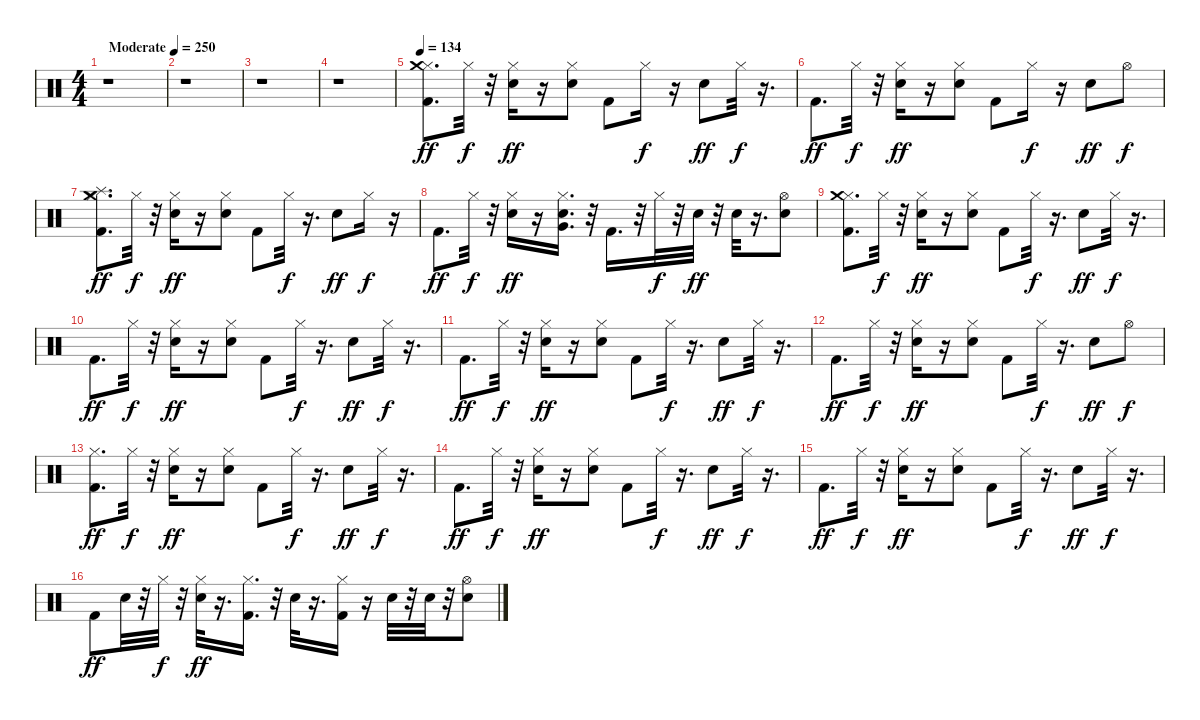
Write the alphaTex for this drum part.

\track "" {instrument percussion}
\staff {score}
\articulation defaults
\ts (4 4)
\tempo (250 "Moderate")
\clef neutral
\ks c
r.1{dy ff} |
r.1 |
r.1 |
r.1 |
\tempo 134
("Hi-Hat (closed)" "Crash medium (hit)" "Kick (hit) 2").8{d} "Hi-Hat (closed)".32{dy f} r.32 ("Snare (hit) 2" "Hi-Hat (closed)").16{dy ff} r.16 ("Snare (hit) 2" "Hi-Hat (closed)").8 "Kick (hit) 2".8 "Hi-Hat (closed)".16{dy f} r.16 "Snare (hit) 2".8{dy ff} "Hi-Hat (closed)".32{dy f} r.16{d} |
"Kick (hit) 2".8{d dy ff} "Hi-Hat (closed)".32{dy f} r.32 ("Snare (hit) 2" "Hi-Hat (closed)").16{dy ff} r.16 ("Hi-Hat (closed)" "Snare (hit) 2").8 "Kick (hit) 2".8 "Hi-Hat (closed)".16{dy f} r.16 "Snare (hit) 2".8{dy ff} "Hi-Hat (open)".8{dy f} |
("Hi-Hat (closed)" "Splash (hit)" "Crash medium (hit)" "Kick (hit) 2").8{d dy ff} "Hi-Hat (closed)".32{dy f} r.32 ("Snare (hit) 2" "Hi-Hat (closed)").16{dy ff} r.16 ("Hi-Hat (closed)" "Snare (hit) 2").8 "Kick (hit) 2".8 "Hi-Hat (closed)".32{dy f} r.16{d} "Snare (hit) 2".8{dy ff} "Hi-Hat (closed)".16{dy f} r.16 |
"Kick (hit) 2".8{d dy ff} "Hi-Hat (closed)".32{dy f} r.32 ("Hi-Hat (closed)" "Snare (hit) 2").16{dy ff} r.16 ("Hi-Hat (closed)" "Very Low Tom (hit)" "Snare (hit) 2").16{d} r.32 "Kick (hit) 2".16{d} r.32 "Hi-Hat (closed)".32{dy f} r.32 "Snare (hit) 2".32{dy ff} r.32 "Snare (hit) 2".32 r.16{d} ("Hi-Hat (open)" "Snare (hit) 2").8 |
("Hi-Hat (closed)" "Kick (hit) 2" "Crash medium (hit)").8{d} "Hi-Hat (closed)".32{dy f} r.32 ("Snare (hit) 2" "Hi-Hat (closed)").16{dy ff} r.16 ("Snare (hit) 2" "Hi-Hat (closed)").8 "Kick (hit) 2".8 "Hi-Hat (closed)".32{dy f} r.16{d} "Snare (hit) 2".8{dy ff} "Hi-Hat (closed)".32{dy f} r.16{d} |
"Kick (hit) 2".8{d dy ff} "Hi-Hat (closed)".32{dy f} r.32 ("Hi-Hat (closed)" "Snare (hit) 2").16{dy ff} r.16 ("Snare (hit) 2" "Hi-Hat (closed)").8 "Kick (hit) 2".8 "Hi-Hat (closed)".32{dy f} r.16{d} "Snare (hit) 2".8{dy ff} "Hi-Hat (closed)".32{dy f} r.16{d} |
"Kick (hit) 2".8{d dy ff} "Hi-Hat (closed)".32{dy f} r.32 ("Snare (hit) 2" "Hi-Hat (closed)").16{dy ff} r.16 ("Snare (hit) 2" "Hi-Hat (closed)").8 "Kick (hit) 2".8 "Hi-Hat (closed)".32{dy f} r.16{d} "Snare (hit) 2".8{dy ff} "Hi-Hat (closed)".32{dy f} r.16{d} |
"Kick (hit) 2".8{d dy ff} "Hi-Hat (closed)".32{dy f} r.32 ("Hi-Hat (closed)" "Snare (hit) 2").16{dy ff} r.16 ("Snare (hit) 2" "Hi-Hat (closed)").8 "Kick (hit) 2".8 "Hi-Hat (closed)".32{dy f} r.16{d} "Snare (hit) 2".8{dy ff} "Hi-Hat (open)".8{dy f} |
("Kick (hit) 2" "Hi-Hat (closed)").8{d dy ff} "Hi-Hat (closed)".32{dy f} r.32 ("Hi-Hat (closed)" "Snare (hit) 2").16{dy ff} r.16 ("Snare (hit) 2" "Hi-Hat (closed)").8 "Kick (hit) 2".8 "Hi-Hat (closed)".32{dy f} r.16{d} "Snare (hit) 2".8{dy ff} "Hi-Hat (closed)".32{dy f} r.16{d} |
"Kick (hit) 2".8{d dy ff} "Hi-Hat (closed)".32{dy f} r.32 ("Snare (hit) 2" "Hi-Hat (closed)").16{dy ff} r.16 ("Snare (hit) 2" "Hi-Hat (closed)").8 "Kick (hit) 2".8 "Hi-Hat (closed)".32{dy f} r.16{d} "Snare (hit) 2".8{dy ff} "Hi-Hat (closed)".32{dy f} r.16{d} |
"Kick (hit) 2".8{d dy ff} "Hi-Hat (closed)".32{dy f} r.32 ("Hi-Hat (closed)" "Snare (hit) 2").16{dy ff} r.16 ("Hi-Hat (closed)" "Snare (hit) 2").8 "Kick (hit) 2".8 "Hi-Hat (closed)".32{dy f} r.16{d} "Snare (hit) 2".8{dy ff} "Hi-Hat (closed)".32{dy f} r.16{d} |
"Kick (hit) 2".8{dy ff} "Snare (hit) 2".32 r.32 "Hi-Hat (closed)".32{dy f} r.32 ("Snare (hit) 2" "Hi-Hat (closed)").32{dy ff} r.16{d} ("Hi-Hat (closed)" "Kick (hit) 2").16{d} r.32 "Snare (hit) 2".32 r.16{d} ("Kick (hit) 2" "Hi-Hat (closed)").16 r.16 "Snare (hit) 2".32 r.32 "Snare (hit) 2".32 r.32 ("Hi-Hat (open)" "Snare (hit) 2").8
